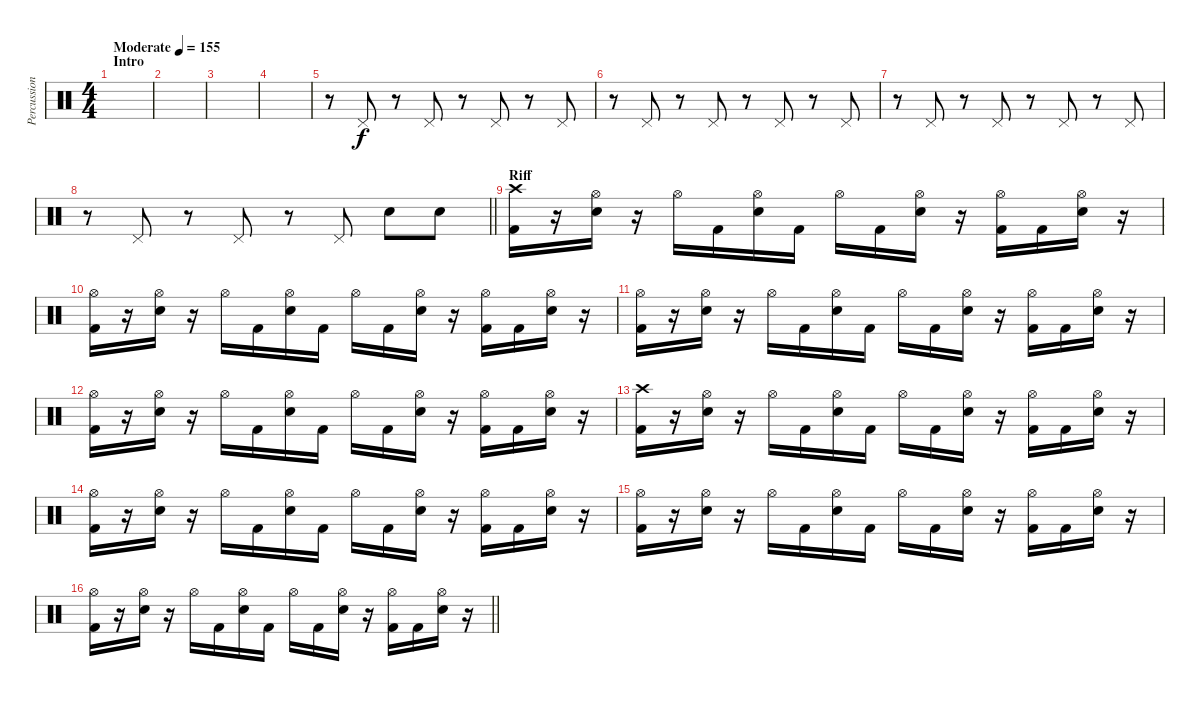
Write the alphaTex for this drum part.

\track ("Percussion" "Percussion") {instrument percussion}
\staff {score}
\articulation defaults
\ts (4 4)
\section ("" "Intro")
\tempo (155 "Moderate")
\clef neutral
\ks c
|
|
|
|
r.8 "Pedal Hi-Hat (hit)".8 r.8 "Pedal Hi-Hat (hit)".8 r.8 "Pedal Hi-Hat (hit)".8 r.8 "Pedal Hi-Hat (hit)".8 |
r.8 "Pedal Hi-Hat (hit)".8 r.8 "Pedal Hi-Hat (hit)".8 r.8 "Pedal Hi-Hat (hit)".8 r.8 "Pedal Hi-Hat (hit)".8 |
r.8 "Pedal Hi-Hat (hit)".8 r.8 "Pedal Hi-Hat (hit)".8 r.8 "Pedal Hi-Hat (hit)".8 r.8 "Pedal Hi-Hat (hit)".8 |
\barLineRight lightlight
r.8 "Pedal Hi-Hat (hit)".8 r.8 "Pedal Hi-Hat (hit)".8 r.8 "Pedal Hi-Hat (hit)".8 "Electric Snare (hit)".8 "Electric Snare (hit)".8 |
\section ("" "Riff")
("Crash high (hit)" "Kick (hit) 2").16 r.16 ("Hi-Hat (open)" "Electric Snare (hit)").16 r.16 "Hi-Hat (open)".16 "Kick (hit) 2".16 ("Hi-Hat (open)" "Electric Snare (hit)").16 "Kick (hit) 2".16 "Hi-Hat (open)".16 "Kick (hit) 2".16 ("Hi-Hat (open)" "Electric Snare (hit)").16 r.16 ("Hi-Hat (open)" "Kick (hit) 2").16 "Kick (hit) 2".16 ("Hi-Hat (open)" "Electric Snare (hit)").16 r.16 |
("Hi-Hat (open)" "Kick (hit) 2").16 r.16 ("Hi-Hat (open)" "Electric Snare (hit)").16 r.16 "Hi-Hat (open)".16 "Kick (hit) 2".16 ("Hi-Hat (open)" "Electric Snare (hit)").16 "Kick (hit) 2".16 "Hi-Hat (open)".16 "Kick (hit) 2".16 ("Hi-Hat (open)" "Electric Snare (hit)").16 r.16 ("Hi-Hat (open)" "Kick (hit) 2").16 "Kick (hit) 2".16 ("Hi-Hat (open)" "Electric Snare (hit)").16 r.16 |
("Hi-Hat (open)" "Kick (hit) 2").16 r.16 ("Hi-Hat (open)" "Electric Snare (hit)").16 r.16 "Hi-Hat (open)".16 "Kick (hit) 2".16 ("Hi-Hat (open)" "Electric Snare (hit)").16 "Kick (hit) 2".16 "Hi-Hat (open)".16 "Kick (hit) 2".16 ("Hi-Hat (open)" "Electric Snare (hit)").16 r.16 ("Hi-Hat (open)" "Kick (hit) 2").16 "Kick (hit) 2".16 ("Hi-Hat (open)" "Electric Snare (hit)").16 r.16 |
("Hi-Hat (open)" "Kick (hit) 2").16 r.16 ("Hi-Hat (open)" "Electric Snare (hit)").16 r.16 "Hi-Hat (open)".16 "Kick (hit) 2".16 ("Hi-Hat (open)" "Electric Snare (hit)").16 "Kick (hit) 2".16 "Hi-Hat (open)".16 "Kick (hit) 2".16 ("Hi-Hat (open)" "Electric Snare (hit)").16 r.16 ("Hi-Hat (open)" "Kick (hit) 2").16 "Kick (hit) 2".16 ("Hi-Hat (open)" "Electric Snare (hit)").16 r.16 |
("Crash high (hit)" "Kick (hit) 2").16 r.16 ("Hi-Hat (open)" "Electric Snare (hit)").16 r.16 "Hi-Hat (open)".16 "Kick (hit) 2".16 ("Hi-Hat (open)" "Electric Snare (hit)").16 "Kick (hit) 2".16 "Hi-Hat (open)".16 "Kick (hit) 2".16 ("Hi-Hat (open)" "Electric Snare (hit)").16 r.16 ("Hi-Hat (open)" "Kick (hit) 2").16 "Kick (hit) 2".16 ("Hi-Hat (open)" "Electric Snare (hit)").16 r.16 |
("Hi-Hat (open)" "Kick (hit) 2").16 r.16 ("Hi-Hat (open)" "Electric Snare (hit)").16 r.16 "Hi-Hat (open)".16 "Kick (hit) 2".16 ("Hi-Hat (open)" "Electric Snare (hit)").16 "Kick (hit) 2".16 "Hi-Hat (open)".16 "Kick (hit) 2".16 ("Hi-Hat (open)" "Electric Snare (hit)").16 r.16 ("Hi-Hat (open)" "Kick (hit) 2").16 "Kick (hit) 2".16 ("Hi-Hat (open)" "Electric Snare (hit)").16 r.16 |
("Hi-Hat (open)" "Kick (hit) 2").16 r.16 ("Hi-Hat (open)" "Electric Snare (hit)").16 r.16 "Hi-Hat (open)".16 "Kick (hit) 2".16 ("Hi-Hat (open)" "Electric Snare (hit)").16 "Kick (hit) 2".16 "Hi-Hat (open)".16 "Kick (hit) 2".16 ("Hi-Hat (open)" "Electric Snare (hit)").16 r.16 ("Hi-Hat (open)" "Kick (hit) 2").16 "Kick (hit) 2".16 ("Hi-Hat (open)" "Electric Snare (hit)").16 r.16 |
\barLineRight lightlight
("Hi-Hat (open)" "Kick (hit) 2").16 r.16 ("Hi-Hat (open)" "Electric Snare (hit)").16 r.16 "Hi-Hat (open)".16 "Kick (hit) 2".16 ("Hi-Hat (open)" "Electric Snare (hit)").16 "Kick (hit) 2".16 "Hi-Hat (open)".16 "Kick (hit) 2".16 ("Hi-Hat (open)" "Electric Snare (hit)").16 r.16 ("Hi-Hat (open)" "Kick (hit) 2").16 "Kick (hit) 2".16 ("Hi-Hat (open)" "Electric Snare (hit)").16 r.16
